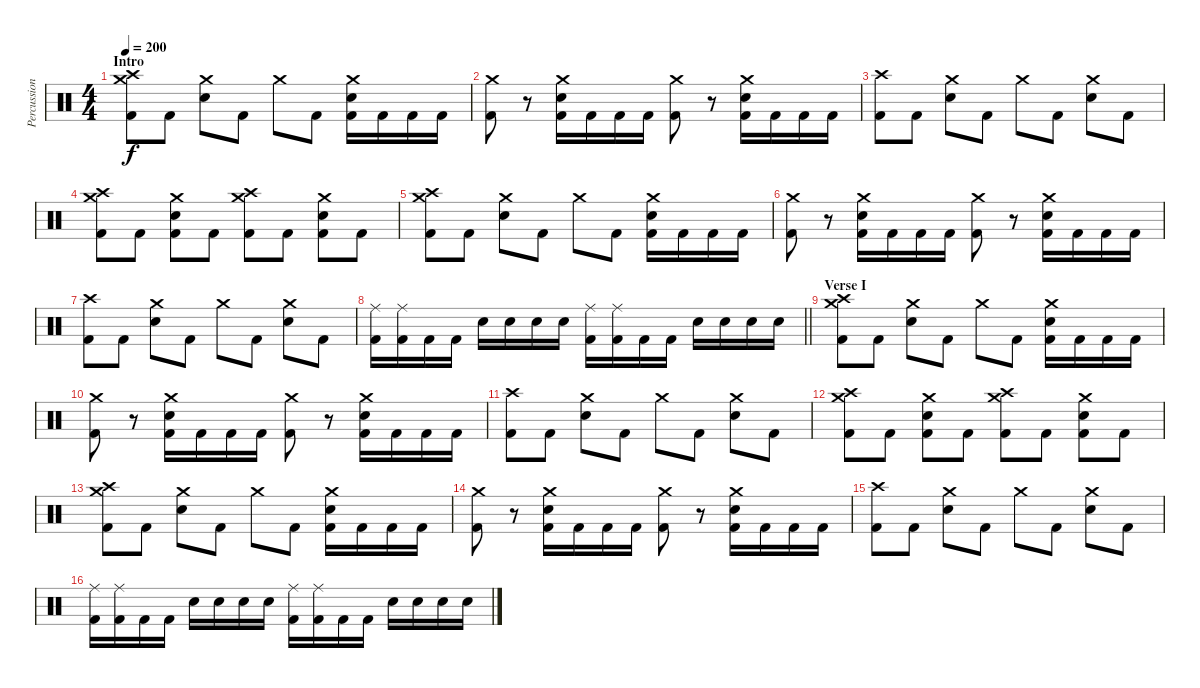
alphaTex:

\track ("Percussion" "Percussion") {instrument percussion}
\staff {score}
\articulation defaults
\ts (4 4)
\section ("" "Intro")
\tempo 200
\clef neutral
\ks c
("Crash medium (hit)" "Crash high (hit)" "Kick (hit) 2").8{dy f} "Kick (hit) 2".8 ("Crash medium (hit)" "Electric Snare (hit)").8 "Kick (hit) 2".8 "Crash medium (hit)".8 "Kick (hit) 2".8 ("Crash medium (hit)" "Electric Snare (hit)" "Kick (hit) 2").16 "Kick (hit) 2".16 "Kick (hit) 2".16 "Kick (hit) 2".16 |
("Crash medium (hit)" "Kick (hit) 2").8 r.8 ("Crash medium (hit)" "Electric Snare (hit)" "Kick (hit) 2").16 "Kick (hit) 2".16 "Kick (hit) 2".16 "Kick (hit) 2".16 ("Crash medium (hit)" "Kick (hit) 2").8 r.8 ("Crash medium (hit)" "Electric Snare (hit)" "Kick (hit) 2").16 "Kick (hit) 2".16 "Kick (hit) 2".16 "Kick (hit) 2".16 |
("Crash high (hit)" "Kick (hit) 2").8 "Kick (hit) 2".8 ("Crash medium (hit)" "Electric Snare (hit)").8 "Kick (hit) 2".8 "Crash medium (hit)".8 "Kick (hit) 2".8 ("Crash medium (hit)" "Electric Snare (hit)").8 "Kick (hit) 2".8 |
("Crash medium (hit)" "Crash high (hit)" "Kick (hit) 2").8 "Kick (hit) 2".8 ("Crash medium (hit)" "Electric Snare (hit)" "Kick (hit) 2").8 "Kick (hit) 2".8 ("Crash medium (hit)" "Crash high (hit)" "Kick (hit) 2").8 "Kick (hit) 2".8 ("Crash medium (hit)" "Electric Snare (hit)" "Kick (hit) 2").8 "Kick (hit) 2".8 |
("Crash medium (hit)" "Crash high (hit)" "Kick (hit) 2").8 "Kick (hit) 2".8 ("Crash medium (hit)" "Electric Snare (hit)").8 "Kick (hit) 2".8 "Crash medium (hit)".8 "Kick (hit) 2".8 ("Crash medium (hit)" "Electric Snare (hit)" "Kick (hit) 2").16 "Kick (hit) 2".16 "Kick (hit) 2".16 "Kick (hit) 2".16 |
("Crash medium (hit)" "Kick (hit) 2").8 r.8 ("Crash medium (hit)" "Electric Snare (hit)" "Kick (hit) 2").16 "Kick (hit) 2".16 "Kick (hit) 2".16 "Kick (hit) 2".16 ("Crash medium (hit)" "Kick (hit) 2").8 r.8 ("Crash medium (hit)" "Electric Snare (hit)" "Kick (hit) 2").16 "Kick (hit) 2".16 "Kick (hit) 2".16 "Kick (hit) 2".16 |
("Crash high (hit)" "Kick (hit) 2").8 "Kick (hit) 2".8 ("Crash medium (hit)" "Electric Snare (hit)").8 "Kick (hit) 2".8 "Crash medium (hit)".8 "Kick (hit) 2".8 ("Crash medium (hit)" "Electric Snare (hit)").8 "Kick (hit) 2".8 |
\barLineRight lightlight
("Ride (middle)" "Kick (hit) 2").16 ("Ride (middle)" "Kick (hit) 2").16 "Kick (hit) 2".16 "Kick (hit) 2".16 "Electric Snare (hit)".16 "Electric Snare (hit)".16 "Electric Snare (hit)".16 "Electric Snare (hit)".16 ("Ride (middle)" "Kick (hit) 2").16 ("Ride (middle)" "Kick (hit) 2").16 "Kick (hit) 2".16 "Kick (hit) 2".16 "Electric Snare (hit)".16 "Electric Snare (hit)".16 "Electric Snare (hit)".16 "Electric Snare (hit)".16 |
\section ("" "Verse I")
("Crash medium (hit)" "Crash high (hit)" "Kick (hit) 2").8 "Kick (hit) 2".8 ("Crash medium (hit)" "Electric Snare (hit)").8 "Kick (hit) 2".8 "Crash medium (hit)".8 "Kick (hit) 2".8 ("Crash medium (hit)" "Electric Snare (hit)" "Kick (hit) 2").16 "Kick (hit) 2".16 "Kick (hit) 2".16 "Kick (hit) 2".16 |
("Crash medium (hit)" "Kick (hit) 2").8 r.8 ("Crash medium (hit)" "Electric Snare (hit)" "Kick (hit) 2").16 "Kick (hit) 2".16 "Kick (hit) 2".16 "Kick (hit) 2".16 ("Crash medium (hit)" "Kick (hit) 2").8 r.8 ("Crash medium (hit)" "Electric Snare (hit)" "Kick (hit) 2").16 "Kick (hit) 2".16 "Kick (hit) 2".16 "Kick (hit) 2".16 |
("Crash high (hit)" "Kick (hit) 2").8 "Kick (hit) 2".8 ("Crash medium (hit)" "Electric Snare (hit)").8 "Kick (hit) 2".8 "Crash medium (hit)".8 "Kick (hit) 2".8 ("Crash medium (hit)" "Electric Snare (hit)").8 "Kick (hit) 2".8 |
("Crash medium (hit)" "Crash high (hit)" "Kick (hit) 2").8 "Kick (hit) 2".8 ("Crash medium (hit)" "Electric Snare (hit)" "Kick (hit) 2").8 "Kick (hit) 2".8 ("Crash medium (hit)" "Crash high (hit)" "Kick (hit) 2").8 "Kick (hit) 2".8 ("Crash medium (hit)" "Electric Snare (hit)" "Kick (hit) 2").8 "Kick (hit) 2".8 |
("Crash medium (hit)" "Crash high (hit)" "Kick (hit) 2").8 "Kick (hit) 2".8 ("Crash medium (hit)" "Electric Snare (hit)").8 "Kick (hit) 2".8 "Crash medium (hit)".8 "Kick (hit) 2".8 ("Crash medium (hit)" "Electric Snare (hit)" "Kick (hit) 2").16 "Kick (hit) 2".16 "Kick (hit) 2".16 "Kick (hit) 2".16 |
("Crash medium (hit)" "Kick (hit) 2").8 r.8 ("Crash medium (hit)" "Electric Snare (hit)" "Kick (hit) 2").16 "Kick (hit) 2".16 "Kick (hit) 2".16 "Kick (hit) 2".16 ("Crash medium (hit)" "Kick (hit) 2").8 r.8 ("Crash medium (hit)" "Electric Snare (hit)" "Kick (hit) 2").16 "Kick (hit) 2".16 "Kick (hit) 2".16 "Kick (hit) 2".16 |
("Crash high (hit)" "Kick (hit) 2").8 "Kick (hit) 2".8 ("Crash medium (hit)" "Electric Snare (hit)").8 "Kick (hit) 2".8 "Crash medium (hit)".8 "Kick (hit) 2".8 ("Crash medium (hit)" "Electric Snare (hit)").8 "Kick (hit) 2".8 |
("Ride (middle)" "Kick (hit) 2").16 ("Ride (middle)" "Kick (hit) 2").16 "Kick (hit) 2".16 "Kick (hit) 2".16 "Electric Snare (hit)".16 "Electric Snare (hit)".16 "Electric Snare (hit)".16 "Electric Snare (hit)".16 ("Ride (middle)" "Kick (hit) 2").16 ("Ride (middle)" "Kick (hit) 2").16 "Kick (hit) 2".16 "Kick (hit) 2".16 "Electric Snare (hit)".16 "Electric Snare (hit)".16 "Electric Snare (hit)".16 "Electric Snare (hit)".16
